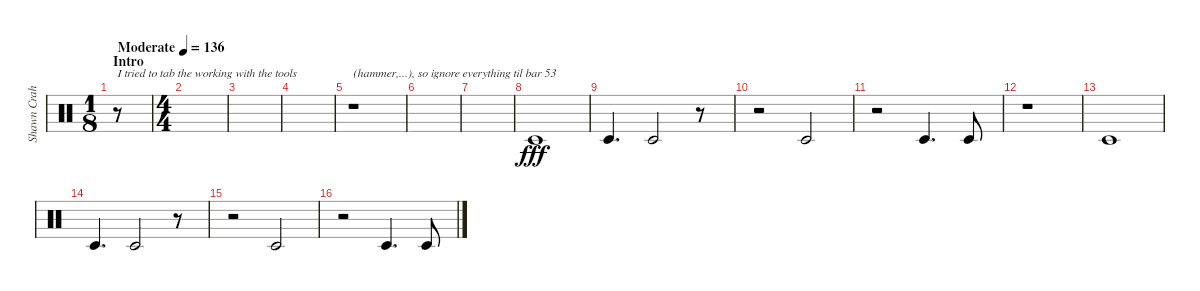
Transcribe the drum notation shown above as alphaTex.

\track ("Shawn Crahan" "Shawn Crah") {instrument percussion}
\staff {score}
\articulation defaults
\ts (1 8)
\section ("" "Intro")
\tempo (136 "Moderate")
\clef neutral
\ks c
r.8{txt "I tried to tab the working with the tools " dy fff} |
\ts (4 4)
|
|
|
r.1{txt "(hammer,...), so ignore everything til bar 53"} |
|
|
"Timbale low (hit)".1 |
"Timbale low (hit)".4{d} "Timbale low (hit)".2 r.8 |
r.2 "Timbale low (hit)".2 |
r.2 "Timbale low (hit)".4{d} "Timbale low (hit)".8 |
r.1 |
"Timbale low (hit)".1 |
"Timbale low (hit)".4{d} "Timbale low (hit)".2 r.8 |
r.2 "Timbale low (hit)".2 |
r.2 "Timbale low (hit)".4{d} "Timbale low (hit)".8
